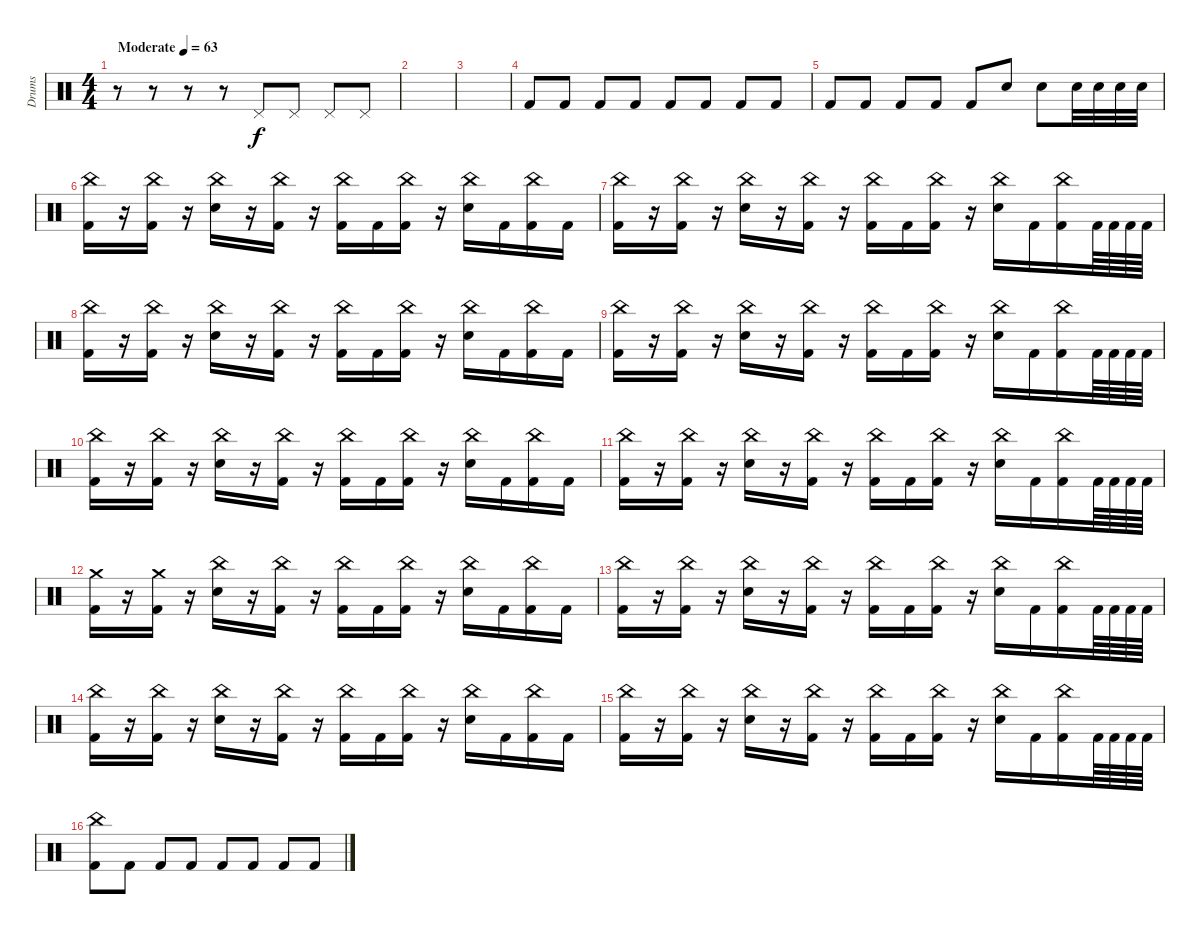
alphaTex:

\track ("Drums" "Drums") {instrument percussion}
\staff {score}
\articulation defaults
\ts (4 4)
\tempo (63 "Moderate")
\clef neutral
\ks c
r.8{dy f} r.8 r.8 r.8 "Pedal Hi-Hat (hit)".8 "Pedal Hi-Hat (hit)".8 "Pedal Hi-Hat (hit)".8 "Pedal Hi-Hat (hit)".8 |
|
|
"Kick (hit) 2".8 "Kick (hit) 2".8 "Kick (hit) 2".8 "Kick (hit) 2".8 "Kick (hit) 2".8 "Kick (hit) 2".8 "Kick (hit) 2".8 "Kick (hit) 2".8 |
"Kick (hit) 2".8 "Kick (hit) 2".8 "Kick (hit) 2".8 "Kick (hit) 2".8 "Kick (hit) 2".8 "Electric Snare (hit)".8 "Electric Snare (hit)".8 "Electric Snare (hit)".32 "Electric Snare (hit)".32 "Electric Snare (hit)".32 "Electric Snare (hit)".32 |
("China (hit)" "Kick (hit) 2").16 r.16 ("China (hit)" "Kick (hit) 2").16 r.16 ("China (hit)" "Electric Snare (hit)").16 r.16 ("China (hit)" "Kick (hit) 2").16 r.16 ("China (hit)" "Kick (hit) 2").16 "Kick (hit) 2".16 ("China (hit)" "Kick (hit) 2").16 r.16 ("China (hit)" "Electric Snare (hit)").16 "Kick (hit) 2".16 ("China (hit)" "Kick (hit) 2").16 "Kick (hit) 2".16 |
("China (hit)" "Kick (hit) 2").16 r.16 ("China (hit)" "Kick (hit) 2").16 r.16 ("China (hit)" "Electric Snare (hit)").16 r.16 ("China (hit)" "Kick (hit) 2").16 r.16 ("China (hit)" "Kick (hit) 2").16 "Kick (hit) 2".16 ("China (hit)" "Kick (hit) 2").16 r.16 ("China (hit)" "Electric Snare (hit)").16 "Kick (hit) 2".16 ("China (hit)" "Kick (hit) 2").16 "Kick (hit) 2".64 "Kick (hit) 2".64 "Kick (hit) 2".64 "Kick (hit) 2".64 |
("China (hit)" "Kick (hit) 2").16 r.16 ("China (hit)" "Kick (hit) 2").16 r.16 ("China (hit)" "Electric Snare (hit)").16 r.16 ("China (hit)" "Kick (hit) 2").16 r.16 ("China (hit)" "Kick (hit) 2").16 "Kick (hit) 2".16 ("China (hit)" "Kick (hit) 2").16 r.16 ("China (hit)" "Electric Snare (hit)").16 "Kick (hit) 2".16 ("China (hit)" "Kick (hit) 2").16 "Kick (hit) 2".16 |
("China (hit)" "Kick (hit) 2").16 r.16 ("China (hit)" "Kick (hit) 2").16 r.16 ("China (hit)" "Electric Snare (hit)").16 r.16 ("China (hit)" "Kick (hit) 2").16 r.16 ("China (hit)" "Kick (hit) 2").16 "Kick (hit) 2".16 ("China (hit)" "Kick (hit) 2").16 r.16 ("China (hit)" "Electric Snare (hit)").16 "Kick (hit) 2".16 ("China (hit)" "Kick (hit) 2").16 "Kick (hit) 2".64 "Kick (hit) 2".64 "Kick (hit) 2".64 "Kick (hit) 2".64 |
("China (hit)" "Kick (hit) 2").16 r.16 ("China (hit)" "Kick (hit) 2").16 r.16 ("China (hit)" "Electric Snare (hit)").16 r.16 ("China (hit)" "Kick (hit) 2").16 r.16 ("China (hit)" "Kick (hit) 2").16 "Kick (hit) 2".16 ("China (hit)" "Kick (hit) 2").16 r.16 ("China (hit)" "Electric Snare (hit)").16 "Kick (hit) 2".16 ("China (hit)" "Kick (hit) 2").16 "Kick (hit) 2".16 |
("China (hit)" "Kick (hit) 2").16 r.16 ("China (hit)" "Kick (hit) 2").16 r.16 ("China (hit)" "Electric Snare (hit)").16 r.16 ("China (hit)" "Kick (hit) 2").16 r.16 ("China (hit)" "Kick (hit) 2").16 "Kick (hit) 2".16 ("China (hit)" "Kick (hit) 2").16 r.16 ("China (hit)" "Electric Snare (hit)").16 "Kick (hit) 2".16 ("China (hit)" "Kick (hit) 2").16 "Kick (hit) 2".64 "Kick (hit) 2".64 "Kick (hit) 2".64 "Kick (hit) 2".64 |
("Crash medium (hit)" "Kick (hit) 2").16 r.16 ("Crash medium (hit)" "Kick (hit) 2").16 r.16 ("China (hit)" "Electric Snare (hit)").16 r.16 ("China (hit)" "Kick (hit) 2").16 r.16 ("China (hit)" "Kick (hit) 2").16 "Kick (hit) 2".16 ("China (hit)" "Kick (hit) 2").16 r.16 ("China (hit)" "Electric Snare (hit)").16 "Kick (hit) 2".16 ("China (hit)" "Kick (hit) 2").16 "Kick (hit) 2".16 |
("China (hit)" "Kick (hit) 2").16 r.16 ("China (hit)" "Kick (hit) 2").16 r.16 ("China (hit)" "Electric Snare (hit)").16 r.16 ("China (hit)" "Kick (hit) 2").16 r.16 ("China (hit)" "Kick (hit) 2").16 "Kick (hit) 2".16 ("China (hit)" "Kick (hit) 2").16 r.16 ("China (hit)" "Electric Snare (hit)").16 "Kick (hit) 2".16 ("China (hit)" "Kick (hit) 2").16 "Kick (hit) 2".64 "Kick (hit) 2".64 "Kick (hit) 2".64 "Kick (hit) 2".64 |
("China (hit)" "Kick (hit) 2").16 r.16 ("China (hit)" "Kick (hit) 2").16 r.16 ("China (hit)" "Electric Snare (hit)").16 r.16 ("China (hit)" "Kick (hit) 2").16 r.16 ("China (hit)" "Kick (hit) 2").16 "Kick (hit) 2".16 ("China (hit)" "Kick (hit) 2").16 r.16 ("China (hit)" "Electric Snare (hit)").16 "Kick (hit) 2".16 ("China (hit)" "Kick (hit) 2").16 "Kick (hit) 2".16 |
("China (hit)" "Kick (hit) 2").16 r.16 ("China (hit)" "Kick (hit) 2").16 r.16 ("China (hit)" "Electric Snare (hit)").16 r.16 ("China (hit)" "Kick (hit) 2").16 r.16 ("China (hit)" "Kick (hit) 2").16 "Kick (hit) 2".16 ("China (hit)" "Kick (hit) 2").16 r.16 ("China (hit)" "Electric Snare (hit)").16 "Kick (hit) 2".16 ("China (hit)" "Kick (hit) 2").16 "Kick (hit) 2".64 "Kick (hit) 2".64 "Kick (hit) 2".64 "Kick (hit) 2".64 |
("China (hit)" "Kick (hit) 2").8 "Kick (hit) 2".8 "Kick (hit) 2".8 "Kick (hit) 2".8 "Kick (hit) 2".8 "Kick (hit) 2".8 "Kick (hit) 2".8 "Kick (hit) 2".8
